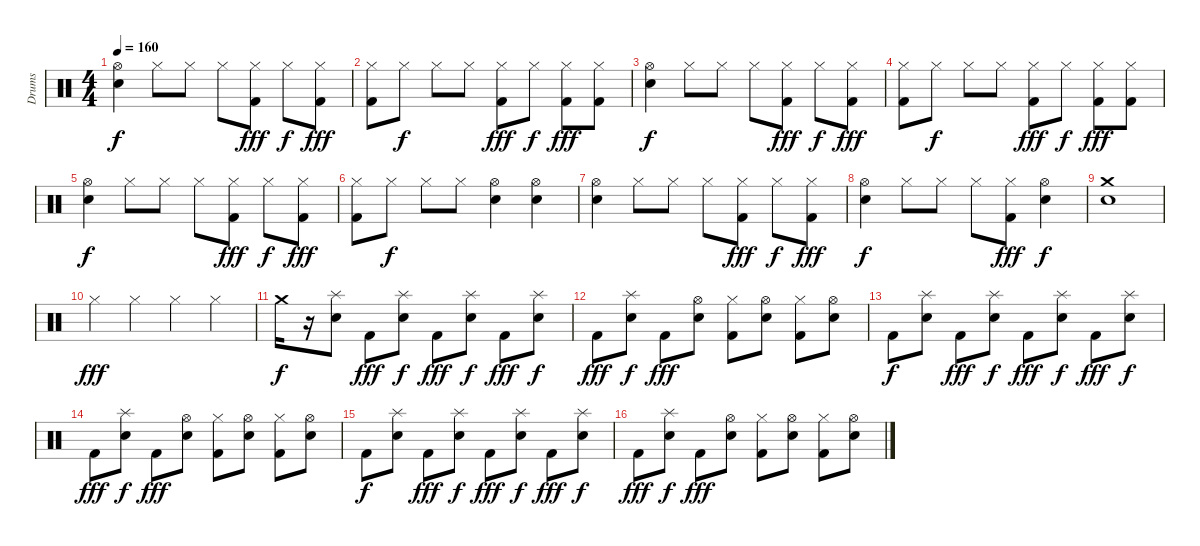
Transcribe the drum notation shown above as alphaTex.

\track ("Drums" "Drums") {instrument percussion}
\staff {score}
\articulation defaults
\ts (4 4)
\tempo 160
\clef neutral
\ks c
("Hi-Hat (open)" "Electric Snare (hit)").4{dy f} "Hi-Hat (closed)".8 "Hi-Hat (closed)".8 "Hi-Hat (closed)".8 ("Hi-Hat (closed)" "Kick (hit) 2").8{dy fff} "Hi-Hat (closed)".8{dy f} ("Hi-Hat (closed)" "Kick (hit) 2").8{dy fff} |
("Hi-Hat (closed)" "Kick (hit) 2").8 "Hi-Hat (closed)".8{dy f} "Hi-Hat (closed)".8 "Hi-Hat (closed)".8 ("Hi-Hat (closed)" "Kick (hit) 2").8{dy fff} "Hi-Hat (closed)".8{dy f} ("Hi-Hat (closed)" "Kick (hit) 2").8{dy fff} ("Hi-Hat (closed)" "Kick (hit) 2").8 |
("Hi-Hat (open)" "Electric Snare (hit)").4{dy f} "Hi-Hat (closed)".8 "Hi-Hat (closed)".8 "Hi-Hat (closed)".8 ("Hi-Hat (closed)" "Kick (hit) 2").8{dy fff} "Hi-Hat (closed)".8{dy f} ("Hi-Hat (closed)" "Kick (hit) 2").8{dy fff} |
("Hi-Hat (closed)" "Kick (hit) 2").8 "Hi-Hat (closed)".8{dy f} "Hi-Hat (closed)".8 "Hi-Hat (closed)".8 ("Hi-Hat (closed)" "Kick (hit) 2").8{dy fff} "Hi-Hat (closed)".8{dy f} ("Hi-Hat (closed)" "Kick (hit) 2").8{dy fff} ("Hi-Hat (closed)" "Kick (hit) 2").8 |
("Hi-Hat (open)" "Electric Snare (hit)").4{dy f} "Hi-Hat (closed)".8 "Hi-Hat (closed)".8 "Hi-Hat (closed)".8 ("Hi-Hat (closed)" "Kick (hit) 2").8{dy fff} "Hi-Hat (closed)".8{dy f} ("Hi-Hat (closed)" "Kick (hit) 2").8{dy fff} |
("Hi-Hat (closed)" "Kick (hit) 2").8 "Hi-Hat (closed)".8{dy f} "Hi-Hat (closed)".8 "Hi-Hat (closed)".8 ("Hi-Hat (open)" "Electric Snare (hit)").4 ("Hi-Hat (open)" "Electric Snare (hit)").4 |
("Hi-Hat (open)" "Electric Snare (hit)").4 "Hi-Hat (closed)".8 "Hi-Hat (closed)".8 "Hi-Hat (closed)".8 ("Hi-Hat (closed)" "Kick (hit) 2").8{dy fff} "Hi-Hat (closed)".8{dy f} ("Hi-Hat (closed)" "Kick (hit) 2").8{dy fff} |
("Hi-Hat (open)" "Electric Snare (hit)").4{dy f} "Hi-Hat (closed)".8 "Hi-Hat (closed)".8 "Hi-Hat (closed)".8 ("Hi-Hat (closed)" "Kick (hit) 2").8{dy fff} ("Hi-Hat (open)" "Electric Snare (hit)").4{dy f} |
("Crash medium (hit)" "Electric Snare (hit)").1 |
"Hi-Hat (closed)".4{dy fff} "Hi-Hat (closed)".4 "Hi-Hat (closed)".4 "Hi-Hat (closed)".4 |
"Crash medium (hit)".16{dy f} r.16 ("Splash (hit)" "Electric Snare (hit)").8 "Kick (hit) 2".8{dy fff} ("Splash (hit)" "Electric Snare (hit)").8{dy f} "Kick (hit) 2".8{dy fff} ("Splash (hit)" "Electric Snare (hit)").8{dy f} "Kick (hit) 2".8{dy fff} ("Splash (hit)" "Electric Snare (hit)").8{dy f} |
"Kick (hit) 2".8{dy fff} ("Splash (hit)" "Electric Snare (hit)").8{dy f} "Kick (hit) 2".8{dy fff} ("Hi-Hat (open)" "Electric Snare (hit)").8 ("Hi-Hat (closed)" "Kick (hit) 2").8 ("Hi-Hat (open)" "Electric Snare (hit)").8 ("Hi-Hat (closed)" "Kick (hit) 2").8 ("Hi-Hat (open)" "Electric Snare (hit)").8 |
"Kick (hit) 2".8{dy f} ("Splash (hit)" "Electric Snare (hit)").8 "Kick (hit) 2".8{dy fff} ("Splash (hit)" "Electric Snare (hit)").8{dy f} "Kick (hit) 2".8{dy fff} ("Splash (hit)" "Electric Snare (hit)").8{dy f} "Kick (hit) 2".8{dy fff} ("Splash (hit)" "Electric Snare (hit)").8{dy f} |
"Kick (hit) 2".8{dy fff} ("Splash (hit)" "Electric Snare (hit)").8{dy f} "Kick (hit) 2".8{dy fff} ("Hi-Hat (open)" "Electric Snare (hit)").8 ("Hi-Hat (closed)" "Kick (hit) 2").8 ("Hi-Hat (open)" "Electric Snare (hit)").8 ("Hi-Hat (closed)" "Kick (hit) 2").8 ("Hi-Hat (open)" "Electric Snare (hit)").8 |
"Kick (hit) 2".8{dy f} ("Splash (hit)" "Electric Snare (hit)").8 "Kick (hit) 2".8{dy fff} ("Splash (hit)" "Electric Snare (hit)").8{dy f} "Kick (hit) 2".8{dy fff} ("Splash (hit)" "Electric Snare (hit)").8{dy f} "Kick (hit) 2".8{dy fff} ("Splash (hit)" "Electric Snare (hit)").8{dy f} |
"Kick (hit) 2".8{dy fff} ("Splash (hit)" "Electric Snare (hit)").8{dy f} "Kick (hit) 2".8{dy fff} ("Hi-Hat (open)" "Electric Snare (hit)").8 ("Hi-Hat (closed)" "Kick (hit) 2").8 ("Hi-Hat (open)" "Electric Snare (hit)").8 ("Hi-Hat (closed)" "Kick (hit) 2").8 ("Hi-Hat (open)" "Electric Snare (hit)").8
